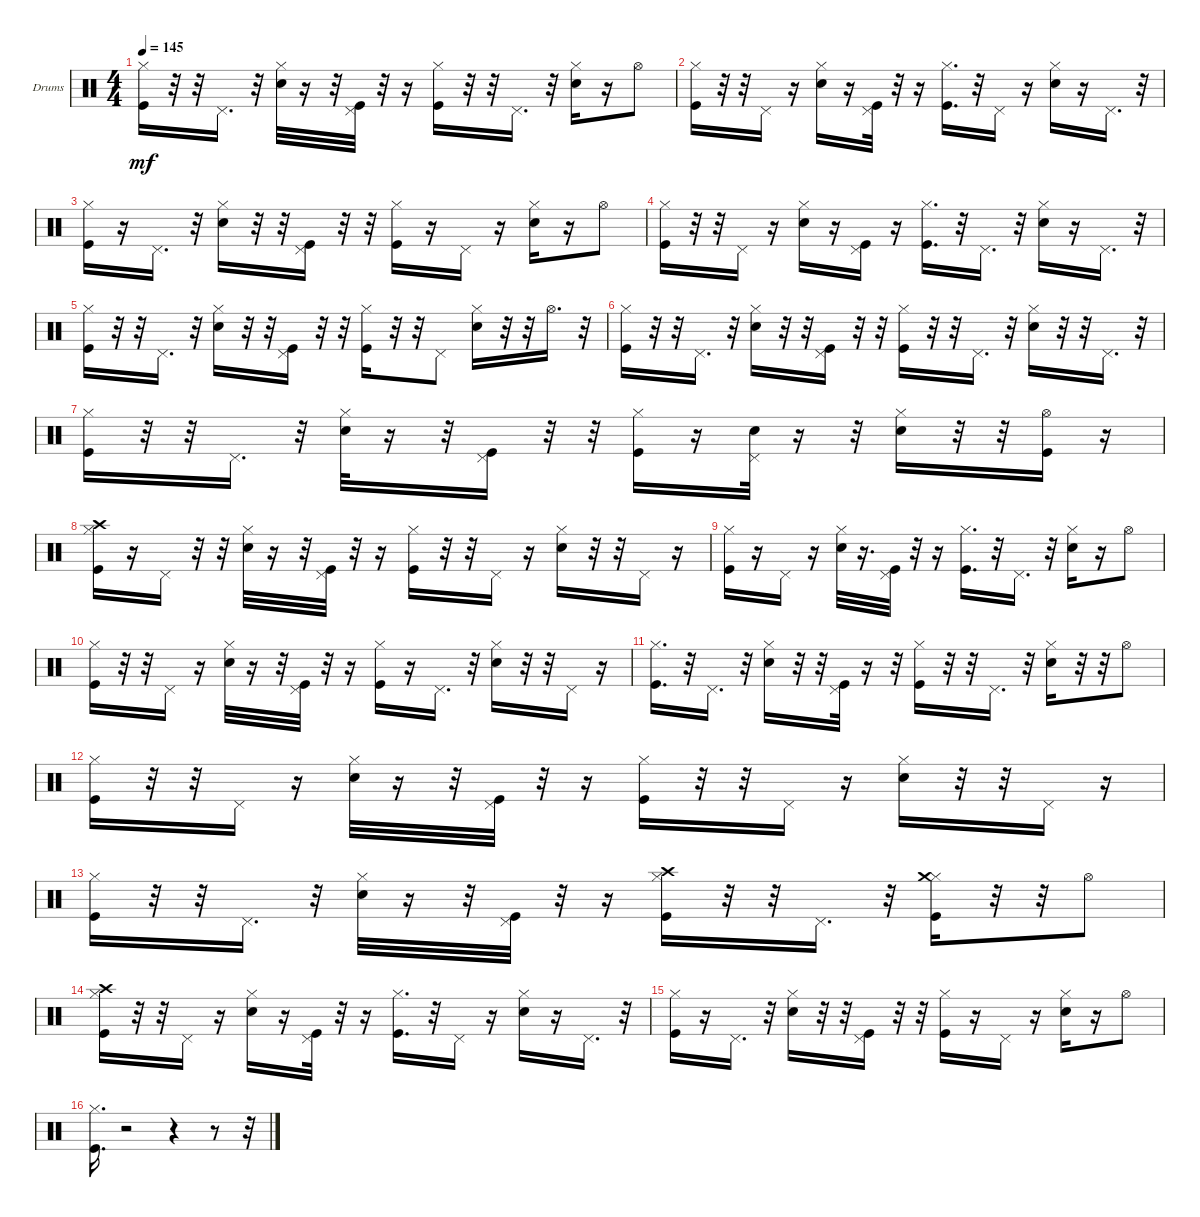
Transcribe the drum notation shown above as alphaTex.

\defaultSystemsLayout 4
\bracketExtendMode groupsimilarinstruments
\firstSystemTrackNameOrientation horizontal
\otherSystemsTrackNameOrientation horizontal
\track ("Drumkit" "Drums") {instrument percussion}
\staff {score}
\articulation defaults
\ts (4 4)
\tempo 145
\clef neutral
\scale
0.333333
\ks c
("Kick (hit)" "Hi-Hat (closed)").16{dy mf} r.32 r.32 "Pedal Hi-Hat (hit)".16{d} r.32 ("Snare (hit) 2" "Hi-Hat (closed)").32 r.16 r.32 ("Kick (hit)" "Pedal Hi-Hat (hit)").32 r.32 r.16 ("Hi-Hat (closed)" "Kick (hit)").16 r.32 r.32 "Pedal Hi-Hat (hit)".16{d} r.32 ("Snare (hit) 2" "Hi-Hat (closed)").16 r.16 "Hi-Hat (open)".8 |
\scale
0.333333 ("Kick (hit)" "Hi-Hat (closed)").16 r.32 r.32 "Pedal Hi-Hat (hit)".16 r.16 ("Snare (hit) 2" "Hi-Hat (closed)").16 r.16 ("Kick (hit)" "Pedal Hi-Hat (hit)").32 r.32 r.16 ("Kick (hit)" "Hi-Hat (closed)").16{d} r.32 "Pedal Hi-Hat (hit)".16 r.16 ("Snare (hit) 2" "Hi-Hat (closed)").16 r.16 "Pedal Hi-Hat (hit)".16{d} r.32 |
\scale
0.333333 ("Kick (hit)" "Hi-Hat (closed)").16 r.16 "Pedal Hi-Hat (hit)".16{d} r.32 ("Snare (hit) 2" "Hi-Hat (closed)").16 r.32 r.32 ("Pedal Hi-Hat (hit)" "Kick (hit)").16 r.32 r.32 ("Hi-Hat (closed)" "Kick (hit)").16 r.16 "Pedal Hi-Hat (hit)".16 r.16 ("Snare (hit) 2" "Hi-Hat (closed)").16 r.16 "Hi-Hat (open)".8 |
\scale
0.333333 ("Hi-Hat (closed)" "Kick (hit)").16 r.32 r.32 "Pedal Hi-Hat (hit)".16 r.16 ("Snare (hit) 2" "Hi-Hat (closed)").16 r.16 ("Kick (hit)" "Pedal Hi-Hat (hit)").16 r.16 ("Hi-Hat (closed)" "Kick (hit)").16{d} r.32 "Pedal Hi-Hat (hit)".16{d} r.32 ("Snare (hit) 2" "Hi-Hat (closed)").16 r.16 "Pedal Hi-Hat (hit)".16{d} r.32 |
\scale
0.333333 ("Hi-Hat (closed)" "Kick (hit)").16 r.32 r.32 "Pedal Hi-Hat (hit)".16{d} r.32 ("Snare (hit) 2" "Hi-Hat (closed)").16 r.32 r.32 ("Pedal Hi-Hat (hit)" "Kick (hit)").16 r.32 r.32 ("Hi-Hat (closed)" "Kick (hit)").16 r.32 r.32 "Pedal Hi-Hat (hit)".8 ("Snare (hit) 2" "Hi-Hat (closed)").16 r.32 r.32 "Hi-Hat (open)".16{d} r.32 |
\scale
0.333333 ("Kick (hit)" "Hi-Hat (closed)").16 r.32 r.32 "Pedal Hi-Hat (hit)".16{d} r.32 ("Snare (hit) 2" "Hi-Hat (closed)").16 r.32 r.32 ("Kick (hit)" "Pedal Hi-Hat (hit)").16 r.32 r.32 ("Hi-Hat (closed)" "Kick (hit)").16 r.32 r.32 "Pedal Hi-Hat (hit)".16{d} r.32 ("Snare (hit) 2" "Hi-Hat (closed)").16 r.32 r.32 "Pedal Hi-Hat (hit)".16{d} r.32 |
\scale
0.333333 ("Kick (hit)" "Hi-Hat (closed)").16 r.32 r.32 "Pedal Hi-Hat (hit)".16{d} r.32 ("Snare (hit) 2" "Hi-Hat (closed)").32 r.16 r.32 ("Pedal Hi-Hat (hit)" "Kick (hit)").16 r.32 r.32 ("Hi-Hat (closed)" "Kick (hit)").16 r.16 ("Snare (hit) 2" "Pedal Hi-Hat (hit)").32 r.16 r.32 ("Snare (hit) 2" "Hi-Hat (closed)").16 r.32 r.32 ("Kick (hit)" "Hi-Hat (open)").16 r.16 |
\scale
0.333333 ("Crash high (hit)" "Kick (hit)" "Hi-Hat (closed)").16 r.16 "Pedal Hi-Hat (hit)".16 r.32 r.32 ("Snare (hit) 2" "Hi-Hat (closed)").32 r.16 r.32 ("Kick (hit)" "Pedal Hi-Hat (hit)").32 r.32 r.16 ("Kick (hit)" "Hi-Hat (closed)").16 r.32 r.32 "Pedal Hi-Hat (hit)".16 r.16 ("Snare (hit) 2" "Hi-Hat (closed)").16 r.32 r.32 "Pedal Hi-Hat (hit)".16 r.16 |
\scale
0.333333 ("Kick (hit)" "Hi-Hat (closed)").16 r.16 "Pedal Hi-Hat (hit)".16 r.16 ("Snare (hit) 2" "Hi-Hat (closed)").32 r.16{d} ("Pedal Hi-Hat (hit)" "Kick (hit)").32 r.32 r.16 ("Hi-Hat (closed)" "Kick (hit)").16{d} r.32 "Pedal Hi-Hat (hit)".16{d} r.32 ("Snare (hit) 2" "Hi-Hat (closed)").16 r.16 "Hi-Hat (open)".8 |
\scale
0.333333 ("Kick (hit)" "Hi-Hat (closed)").16 r.32 r.32 "Pedal Hi-Hat (hit)".16 r.16 ("Snare (hit) 2" "Hi-Hat (closed)").32 r.16 r.32 ("Kick (hit)" "Pedal Hi-Hat (hit)").32 r.32 r.16 ("Hi-Hat (closed)" "Kick (hit)").16 r.16 "Pedal Hi-Hat (hit)".16{d} r.32 ("Snare (hit) 2" "Hi-Hat (closed)").16 r.32 r.32 "Pedal Hi-Hat (hit)".16 r.16 |
\scale
0.333333 ("Hi-Hat (closed)" "Kick (hit)").16{d} r.32 "Pedal Hi-Hat (hit)".16{d} r.32 ("Snare (hit) 2" "Hi-Hat (closed)").16 r.32 r.32 ("Pedal Hi-Hat (hit)" "Kick (hit)").32 r.16 r.32 ("Hi-Hat (closed)" "Kick (hit)").16 r.32 r.32 "Pedal Hi-Hat (hit)".16{d} r.32 ("Snare (hit) 2" "Hi-Hat (closed)").16 r.32 r.32 "Hi-Hat (open)".8 |
\scale
0.333333 ("Kick (hit)" "Hi-Hat (closed)").16 r.32 r.32 "Pedal Hi-Hat (hit)".16 r.16 ("Snare (hit) 2" "Hi-Hat (closed)").32 r.16 r.32 ("Kick (hit)" "Pedal Hi-Hat (hit)").32 r.32 r.16 ("Kick (hit)" "Hi-Hat (closed)").16 r.32 r.32 "Pedal Hi-Hat (hit)".16 r.16 ("Snare (hit) 2" "Hi-Hat (closed)").16 r.32 r.32 "Pedal Hi-Hat (hit)".16 r.16 |
\scale
0.333333 ("Kick (hit)" "Hi-Hat (closed)").16 r.32 r.32 "Pedal Hi-Hat (hit)".16{d} r.32 ("Snare (hit) 2" "Hi-Hat (closed)").32 r.16 r.32 ("Kick (hit)" "Pedal Hi-Hat (hit)").32 r.32 r.16 ("Hi-Hat (closed)" "Kick (hit)" "Crash high (hit)").16 r.32 r.32 "Pedal Hi-Hat (hit)".16{d} r.32 ("Kick (hit)" "Hi-Hat (closed)" "Crash medium (hit)").16 r.32 r.32 "Hi-Hat (open)".8 |
\scale
0.333333 ("Kick (hit)" "Hi-Hat (closed)" "Crash high (hit)").16 r.32 r.32 "Pedal Hi-Hat (hit)".16 r.16 ("Snare (hit) 2" "Hi-Hat (closed)").16 r.16 ("Kick (hit)" "Pedal Hi-Hat (hit)").32 r.32 r.16 ("Kick (hit)" "Hi-Hat (closed)").16{d} r.32 "Pedal Hi-Hat (hit)".16 r.16 ("Snare (hit) 2" "Hi-Hat (closed)").16 r.16 "Pedal Hi-Hat (hit)".16{d} r.32 |
\scale
0.333333 ("Kick (hit)" "Hi-Hat (closed)").16 r.16 "Pedal Hi-Hat (hit)".16{d} r.32 ("Snare (hit) 2" "Hi-Hat (closed)").16 r.32 r.32 ("Pedal Hi-Hat (hit)" "Kick (hit)").16 r.32 r.32 ("Hi-Hat (closed)" "Kick (hit)").16 r.16 "Pedal Hi-Hat (hit)".16 r.16 ("Snare (hit) 2" "Hi-Hat (closed)").16 r.16 "Hi-Hat (open)".8 |
\scale
0.333333 ("Hi-Hat (closed)" "Kick (hit)").16{d} r.2 r.4 r.8 r.32
